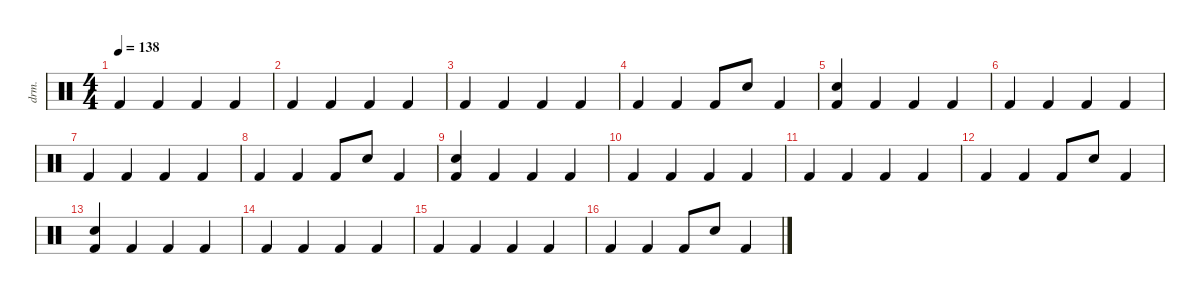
\defaultSystemsLayout 4
\hideDynamics
\bracketExtendMode nobrackets
\otherSystemsTrackNameOrientation horizontal
\track ("Drumkit" "drm.") {instrument percussion bank 128}
\staff {score}
\articulation defaults
\ts (4 4)
\tempo 138
\clef neutral
\ks c "Kick (hit) 2".4{dy mf beam Up} "Kick (hit) 2".4{beam Up} "Kick (hit) 2".4{beam Up} "Kick (hit) 2".4{beam Up}
|
"Kick (hit) 2".4{beam Up} "Kick (hit) 2".4{beam Up} "Kick (hit) 2".4{beam Up} "Kick (hit) 2".4{beam Up} |
"Kick (hit) 2".4{beam Up} "Kick (hit) 2".4{beam Up} "Kick (hit) 2".4{beam Up} "Kick (hit) 2".4{beam Up} |
"Kick (hit) 2".4{beam Up} "Kick (hit) 2".4{beam Up} "Kick (hit) 2".8{beam Up} "Snare (hit) 2".8{beam Up} "Kick (hit) 2".4{beam Up} |
("Kick (hit) 2" "Snare (hit) 2").4{beam Up} "Kick (hit) 2".4{beam Up} "Kick (hit) 2".4{beam Up} "Kick (hit) 2".4{beam Up} |
"Kick (hit) 2".4{beam Up} "Kick (hit) 2".4{beam Up} "Kick (hit) 2".4{beam Up} "Kick (hit) 2".4{beam Up} |
"Kick (hit) 2".4{beam Up} "Kick (hit) 2".4{beam Up} "Kick (hit) 2".4{beam Up} "Kick (hit) 2".4{beam Up} |
"Kick (hit) 2".4{beam Up} "Kick (hit) 2".4{beam Up} "Kick (hit) 2".8{beam Up} "Snare (hit) 2".8{beam Up} "Kick (hit) 2".4{beam Up} |
("Kick (hit) 2" "Snare (hit) 2").4{beam Up} "Kick (hit) 2".4{beam Up} "Kick (hit) 2".4{beam Up} "Kick (hit) 2".4{beam Up} |
"Kick (hit) 2".4{beam Up} "Kick (hit) 2".4{beam Up} "Kick (hit) 2".4{beam Up} "Kick (hit) 2".4{beam Up} |
"Kick (hit) 2".4{beam Up} "Kick (hit) 2".4{beam Up} "Kick (hit) 2".4{beam Up} "Kick (hit) 2".4{beam Up} |
"Kick (hit) 2".4{beam Up} "Kick (hit) 2".4{beam Up} "Kick (hit) 2".8{beam Up} "Snare (hit) 2".8{beam Up} "Kick (hit) 2".4{beam Up} |
("Kick (hit) 2" "Snare (hit) 2").4{beam Up} "Kick (hit) 2".4{beam Up} "Kick (hit) 2".4{beam Up} "Kick (hit) 2".4{beam Up} |
"Kick (hit) 2".4{beam Up} "Kick (hit) 2".4{beam Up} "Kick (hit) 2".4{beam Up} "Kick (hit) 2".4{beam Up} |
"Kick (hit) 2".4{beam Up} "Kick (hit) 2".4{beam Up} "Kick (hit) 2".4{beam Up} "Kick (hit) 2".4{beam Up} |
"Kick (hit) 2".4{beam Up} "Kick (hit) 2".4{beam Up} "Kick (hit) 2".8{beam Up} "Snare (hit) 2".8{beam Up} "Kick (hit) 2".4{beam Up}
